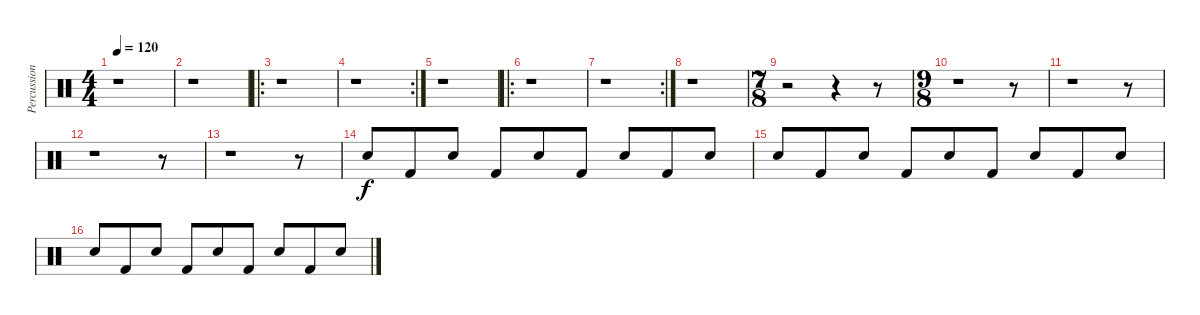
\track ("Percussion" "Percussion") {instrument percussion}
\staff {score}
\articulation defaults
\ts (4 4)
\tempo 120
\clef neutral
\ks c
r.1{dy f} |
r.1 |
\ro
r.1 |
\rc 2
r.1 |
r.1 |
\ro
r.1 |
\rc 2
r.1 |
r.1 |
\ts (7 8)
r.2 r.4 r.8 |
\ts (9 8)
r.1 r.8 |
r.1 r.8 |
r.1 r.8 |
r.1 r.8 |
"Electric Snare (hit)".8 "Kick (hit) 2".8 "Electric Snare (hit)".8 "Kick (hit) 2".8 "Electric Snare (hit)".8 "Kick (hit) 2".8 "Electric Snare (hit)".8 "Kick (hit) 2".8 "Electric Snare (hit)".8 |
"Electric Snare (hit)".8 "Kick (hit) 2".8 "Electric Snare (hit)".8 "Kick (hit) 2".8 "Electric Snare (hit)".8 "Kick (hit) 2".8 "Electric Snare (hit)".8 "Kick (hit) 2".8 "Electric Snare (hit)".8 |
"Electric Snare (hit)".8 "Kick (hit) 2".8 "Electric Snare (hit)".8 "Kick (hit) 2".8 "Electric Snare (hit)".8 "Kick (hit) 2".8 "Electric Snare (hit)".8 "Kick (hit) 2".8 "Electric Snare (hit)".8
